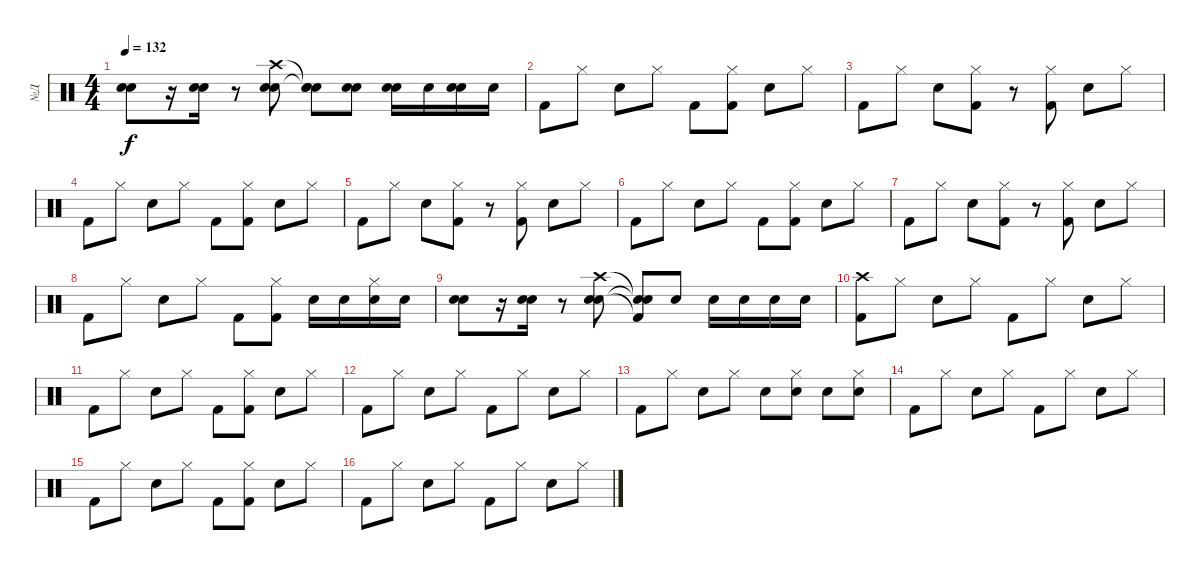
\track ("№Д" "№Д") {instrument percussion}
\staff {score}
\articulation defaults
\ts (4 4)
\tempo 132
\clef neutral
\ks c
("Snare (hit) 2" "Electric Snare (hit)").8{dy f} r.16 ("Snare (hit) 2" "Electric Snare (hit)").16 r.8 ("Crash high (hit)" "Snare (hit) 2" "Electric Snare (hit)").8 ("Snare (hit)"{t} "Snare (hit)"{t} "Snare (hit) 2").8 ("Hand Clap (hit)" "Snare (hit) 2").8 ("Hand Clap (hit)" "Snare (hit) 2").16 "Snare (hit) 2".16 ("Hand Clap (hit)" "Snare (hit) 2").16 "Snare (hit) 2".16 |
"Kick (hit) 2".8 "Hi-Hat (closed)".8 "Snare (hit) 2".8 "Hi-Hat (closed)".8 "Kick (hit) 2".8 ("Hi-Hat (closed)" "Kick (hit) 2").8 "Snare (hit) 2".8 "Hi-Hat (closed)".8 |
"Kick (hit) 2".8 "Hi-Hat (closed)".8 "Snare (hit) 2".8 ("Hi-Hat (closed)" "Kick (hit) 2").8 r.8 ("Hi-Hat (closed)" "Kick (hit) 2").8 "Snare (hit) 2".8 "Hi-Hat (closed)".8 |
"Kick (hit) 2".8 "Hi-Hat (closed)".8 "Snare (hit) 2".8 "Hi-Hat (closed)".8 "Kick (hit) 2".8 ("Hi-Hat (closed)" "Kick (hit) 2").8 "Snare (hit) 2".8 "Hi-Hat (closed)".8 |
"Kick (hit) 2".8 "Hi-Hat (closed)".8 "Snare (hit) 2".8 ("Hi-Hat (closed)" "Kick (hit) 2").8 r.8 ("Hi-Hat (closed)" "Kick (hit) 2").8 "Snare (hit) 2".8 "Hi-Hat (closed)".8 |
"Kick (hit) 2".8 "Hi-Hat (closed)".8 "Snare (hit) 2".8 "Hi-Hat (closed)".8 "Kick (hit) 2".8 ("Hi-Hat (closed)" "Kick (hit) 2").8 "Snare (hit) 2".8 "Hi-Hat (closed)".8 |
"Kick (hit) 2".8 "Hi-Hat (closed)".8 "Snare (hit) 2".8 ("Hi-Hat (closed)" "Kick (hit) 2").8 r.8 ("Hi-Hat (closed)" "Kick (hit) 2").8 "Snare (hit) 2".8 "Hi-Hat (closed)".8 |
"Kick (hit) 2".8 "Hi-Hat (closed)".8 "Snare (hit) 2".8 "Hi-Hat (closed)".8 "Kick (hit) 2".8 ("Hi-Hat (closed)" "Kick (hit) 2").8 "Snare (hit) 2".16 "Snare (hit) 2".16 ("Hi-Hat (closed)" "Snare (hit) 2").16 "Snare (hit) 2".16 |
("Snare (hit) 2" "Electric Snare (hit)").8 r.16 ("Snare (hit) 2" "Electric Snare (hit)").16 r.8 ("Crash high (hit)" "Snare (hit) 2" "Electric Snare (hit)").8 ("Snare (hit)"{t} "Snare (hit)"{t} "Kick (hit) 2"{t}).8 "Snare (hit) 2".8 "Snare (hit) 2".16 "Snare (hit) 2".16 "Snare (hit) 2".16 "Snare (hit) 2".16 |
("Crash high (hit)" "Kick (hit) 2").8 "Hi-Hat (closed)".8 "Snare (hit) 2".8 "Hi-Hat (closed)".8 "Kick (hit) 2".8 "Hi-Hat (closed)".8 "Snare (hit) 2".8 "Hi-Hat (closed)".8 |
"Kick (hit) 2".8 "Hi-Hat (closed)".8 "Snare (hit) 2".8 "Hi-Hat (closed)".8 "Kick (hit) 2".8 ("Hi-Hat (closed)" "Kick (hit) 2").8 "Snare (hit) 2".8 "Hi-Hat (closed)".8 |
"Kick (hit) 2".8 "Hi-Hat (closed)".8 "Snare (hit) 2".8 "Hi-Hat (closed)".8 "Kick (hit) 2".8 "Hi-Hat (closed)".8 "Snare (hit) 2".8 "Hi-Hat (closed)".8 |
"Kick (hit) 2".8 "Hi-Hat (closed)".8 "Snare (hit) 2".8 "Hi-Hat (closed)".8 "Electric Snare (hit)".8 ("Hi-Hat (closed)" "Electric Snare (hit)").8 "Snare (hit) 2".8 ("Hi-Hat (closed)" "Snare (hit) 2").8 |
"Kick (hit) 2".8 "Hi-Hat (closed)".8 "Snare (hit) 2".8 "Hi-Hat (closed)".8 "Kick (hit) 2".8 "Hi-Hat (closed)".8 "Snare (hit) 2".8 "Hi-Hat (closed)".8 |
"Kick (hit) 2".8 "Hi-Hat (closed)".8 "Snare (hit) 2".8 "Hi-Hat (closed)".8 "Kick (hit) 2".8 ("Hi-Hat (closed)" "Kick (hit) 2").8 "Snare (hit) 2".8 "Hi-Hat (closed)".8 |
"Kick (hit) 2".8 "Hi-Hat (closed)".8 "Snare (hit) 2".8 "Hi-Hat (closed)".8 "Kick (hit) 2".8 "Hi-Hat (closed)".8 "Snare (hit) 2".8 "Hi-Hat (closed)".8
